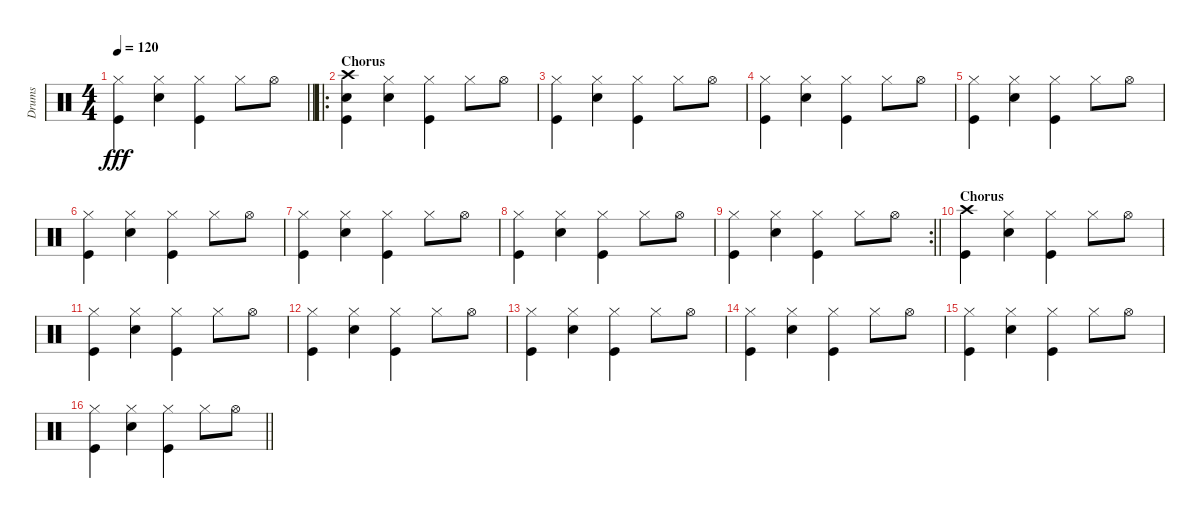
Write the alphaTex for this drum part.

\track ("Drums" "Drums") {instrument percussion}
\staff {score}
\articulation defaults
\ts (4 4)
\tempo 120
\clef neutral
\barLineRight lightlight
\ks c
("Hi-Hat (closed)" "Kick (hit)").4{dy fff} ("Hi-Hat (closed)" "Snare (hit) 2").4 ("Hi-Hat (closed)" "Kick (hit)").4 "Hi-Hat (closed)".8 "Hi-Hat (open)".8 |
\ro
\section ("" "Chorus")
("Crash high (hit)" "Snare (hit) 2" "Kick (hit)").4 ("Hi-Hat (closed)" "Snare (hit) 2").4 ("Hi-Hat (closed)" "Kick (hit)").4 "Hi-Hat (closed)".8 "Hi-Hat (open)".8 |
("Hi-Hat (closed)" "Kick (hit)").4 ("Hi-Hat (closed)" "Snare (hit) 2").4 ("Hi-Hat (closed)" "Kick (hit)").4 "Hi-Hat (closed)".8 "Hi-Hat (open)".8 |
("Hi-Hat (closed)" "Kick (hit)").4 ("Hi-Hat (closed)" "Snare (hit) 2").4 ("Hi-Hat (closed)" "Kick (hit)").4 "Hi-Hat (closed)".8 "Hi-Hat (open)".8 |
("Hi-Hat (closed)" "Kick (hit)").4 ("Hi-Hat (closed)" "Snare (hit) 2").4 ("Hi-Hat (closed)" "Kick (hit)").4 "Hi-Hat (closed)".8 "Hi-Hat (open)".8 |
("Hi-Hat (closed)" "Kick (hit)").4 ("Hi-Hat (closed)" "Snare (hit) 2").4 ("Hi-Hat (closed)" "Kick (hit)").4 "Hi-Hat (closed)".8 "Hi-Hat (open)".8 |
("Hi-Hat (closed)" "Kick (hit)").4 ("Hi-Hat (closed)" "Snare (hit) 2").4 ("Hi-Hat (closed)" "Kick (hit)").4 "Hi-Hat (closed)".8 "Hi-Hat (open)".8 |
("Hi-Hat (closed)" "Kick (hit)").4 ("Hi-Hat (closed)" "Snare (hit) 2").4 ("Hi-Hat (closed)" "Kick (hit)").4 "Hi-Hat (closed)".8 "Hi-Hat (open)".8 |
\rc 2
\barLineRight lightlight
("Hi-Hat (closed)" "Kick (hit)").4 ("Hi-Hat (closed)" "Snare (hit) 2").4 ("Hi-Hat (closed)" "Kick (hit)").4 "Hi-Hat (closed)".8 "Hi-Hat (open)".8 |
\section ("" "Chorus")
("Crash high (hit)" "Kick (hit)").4 ("Hi-Hat (closed)" "Snare (hit) 2").4 ("Hi-Hat (closed)" "Kick (hit)").4 "Hi-Hat (closed)".8 "Hi-Hat (open)".8 |
("Hi-Hat (closed)" "Kick (hit)").4 ("Hi-Hat (closed)" "Snare (hit) 2").4 ("Hi-Hat (closed)" "Kick (hit)").4 "Hi-Hat (closed)".8 "Hi-Hat (open)".8 |
("Hi-Hat (closed)" "Kick (hit)").4 ("Hi-Hat (closed)" "Snare (hit) 2").4 ("Hi-Hat (closed)" "Kick (hit)").4 "Hi-Hat (closed)".8 "Hi-Hat (open)".8 |
("Hi-Hat (closed)" "Kick (hit)").4 ("Hi-Hat (closed)" "Snare (hit) 2").4 ("Hi-Hat (closed)" "Kick (hit)").4 "Hi-Hat (closed)".8 "Hi-Hat (open)".8 |
("Hi-Hat (closed)" "Kick (hit)").4 ("Hi-Hat (closed)" "Snare (hit) 2").4 ("Hi-Hat (closed)" "Kick (hit)").4 "Hi-Hat (closed)".8 "Hi-Hat (open)".8 |
("Hi-Hat (closed)" "Kick (hit)").4 ("Hi-Hat (closed)" "Snare (hit) 2").4 ("Hi-Hat (closed)" "Kick (hit)").4 "Hi-Hat (closed)".8 "Hi-Hat (open)".8 |
\barLineRight lightlight
("Hi-Hat (closed)" "Kick (hit)").4 ("Hi-Hat (closed)" "Snare (hit) 2").4 ("Hi-Hat (closed)" "Kick (hit)").4 "Hi-Hat (closed)".8 "Hi-Hat (open)".8
